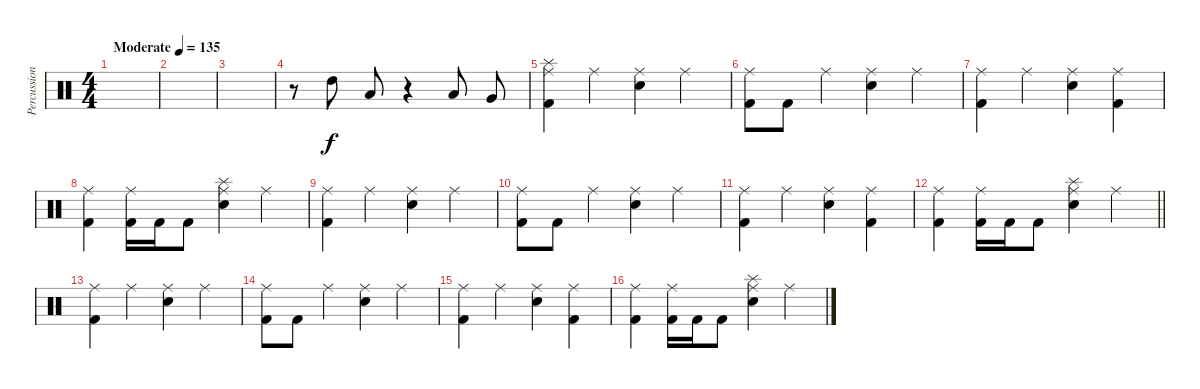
\track ("Percussion" "Percussion") {instrument percussion}
\staff {score}
\articulation defaults
\ts (4 4)
\tempo (135 "Moderate")
\clef neutral
\ks c
|
|
|
r.8 "High Tom (hit)".8 "Low Tom (hit)".8 r.4 "Low Tom (hit)".8 "Very Low Tom (hit)".8 |
("Kick (hit) 2" "Splash (hit)" "Ride (middle)").4 "Ride (middle)".4 ("Electric Snare (hit)" "Ride (middle)").4 "Ride (middle)".4 |
("Kick (hit) 2" "Ride (middle)").8 "Kick (hit) 2".8 "Ride (middle)".4 ("Electric Snare (hit)" "Ride (middle)").4 "Ride (middle)".4 |
("Kick (hit) 2" "Ride (middle)").4 "Ride (middle)".4 ("Electric Snare (hit)" "Ride (middle)").4 ("Kick (hit) 2" "Ride (middle)").4 |
("Kick (hit) 2" "Ride (middle)").4 ("Kick (hit) 2" "Ride (middle)").16 "Kick (hit) 2".16 "Kick (hit) 2".8 ("Electric Snare (hit)" "Ride (middle)" "Splash (hit)").4 "Ride (middle)".4 |
("Kick (hit) 2" "Ride (middle)").4 "Ride (middle)".4 ("Electric Snare (hit)" "Ride (middle)").4 "Ride (middle)".4 |
("Kick (hit) 2" "Ride (middle)").8 "Kick (hit) 2".8 "Ride (middle)".4 ("Electric Snare (hit)" "Ride (middle)").4 "Ride (middle)".4 |
("Kick (hit) 2" "Ride (middle)").4 "Ride (middle)".4 ("Electric Snare (hit)" "Ride (middle)").4 ("Kick (hit) 2" "Ride (middle)").4 |
\barLineRight lightlight
("Kick (hit) 2" "Ride (middle)").4 ("Kick (hit) 2" "Ride (middle)").16 "Kick (hit) 2".16 "Kick (hit) 2".8 ("Electric Snare (hit)" "Ride (middle)" "Splash (hit)").4 "Ride (middle)".4 |
\section ("" "")
("Kick (hit) 2" "Ride (middle)").4 "Ride (middle)".4 ("Electric Snare (hit)" "Ride (middle)").4 "Ride (middle)".4 |
("Kick (hit) 2" "Ride (middle)").8 "Kick (hit) 2".8 "Ride (middle)".4 ("Electric Snare (hit)" "Ride (middle)").4 "Ride (middle)".4 |
("Kick (hit) 2" "Ride (middle)").4 "Ride (middle)".4 ("Electric Snare (hit)" "Ride (middle)").4 ("Kick (hit) 2" "Ride (middle)").4 |
("Kick (hit) 2" "Ride (middle)").4 ("Kick (hit) 2" "Ride (middle)").16 "Kick (hit) 2".16 "Kick (hit) 2".8 ("Electric Snare (hit)" "Ride (middle)" "Splash (hit)").4 "Ride (middle)".4
